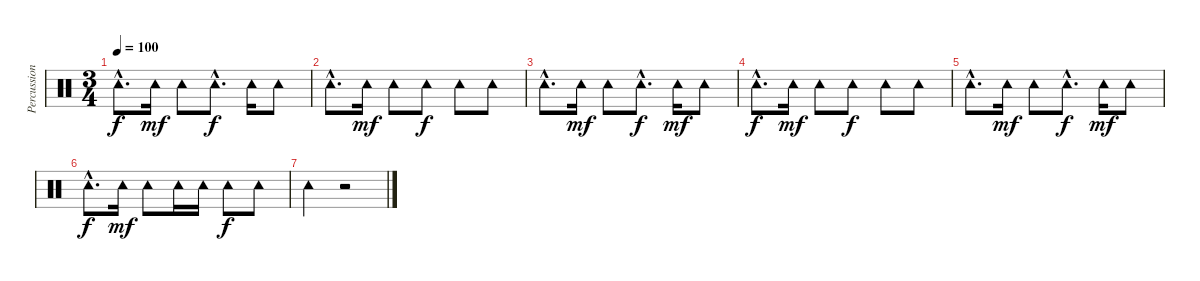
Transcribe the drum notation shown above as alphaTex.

\track ("Percussion" "Percussion") {instrument percussion}
\staff {score}
\articulation defaults
\ts (3 4)
\tempo 100
\clef neutral
\ks c "Tambourine (hit)"{hac}.8{d dy f} "Tambourine (hit)".16{dy mf} "Tambourine (hit)".8 "Tambourine (hit)"{hac}.8{d dy f} "Tambourine (hit)".16 "Tambourine (hit)".8
|
"Tambourine (hit)"{hac}.8{d} "Tambourine (hit)".16{dy mf} "Tambourine (hit)".8 "Tambourine (hit)".8{dy f} "Tambourine (hit)".8 "Tambourine (hit)".8 |
"Tambourine (hit)"{hac}.8{d} "Tambourine (hit)".16{dy mf} "Tambourine (hit)".8 "Tambourine (hit)"{hac}.8{d dy f} "Tambourine (hit)".16{dy mf} "Tambourine (hit)".8 |
"Tambourine (hit)"{hac}.8{d dy f} "Tambourine (hit)".16{dy mf} "Tambourine (hit)".8 "Tambourine (hit)".8{dy f} "Tambourine (hit)".8 "Tambourine (hit)".8 |
"Tambourine (hit)"{hac}.8{d} "Tambourine (hit)".16{dy mf} "Tambourine (hit)".8 "Tambourine (hit)"{hac}.8{d dy f} "Tambourine (hit)".16{dy mf} "Tambourine (hit)".8 |
"Tambourine (hit)"{hac}.8{d dy f} "Tambourine (hit)".16{dy mf} "Tambourine (hit)".8 "Tambourine (hit)".16 "Tambourine (hit)".16 "Tambourine (hit)".8{dy f} "Tambourine (hit)".8 |
"Tambourine (hit)".4 r.2
